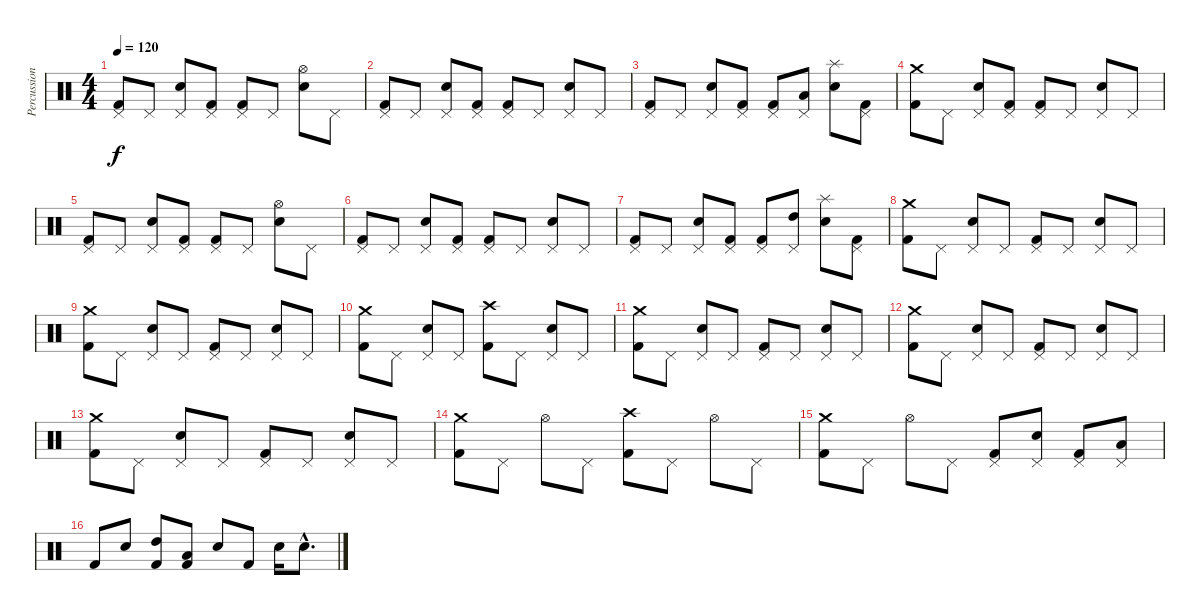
\track ("Percussions" "Percussion") {instrument percussion}
\staff {score}
\articulation defaults
\ts (4 4)
\tempo 120
\clef neutral
\ks c
("Pedal Hi-Hat (hit)" "Kick (hit) 2").8{dy f} "Pedal Hi-Hat (hit)".8 ("Pedal Hi-Hat (hit)" "Snare (hit) 2").8 ("Pedal Hi-Hat (hit)" "Kick (hit) 2").8 ("Pedal Hi-Hat (hit)" "Kick (hit) 2").8 "Pedal Hi-Hat (hit)".8 ("Hi-Hat (open)" "Snare (hit) 2").8 "Pedal Hi-Hat (hit)".8 |
("Pedal Hi-Hat (hit)" "Kick (hit) 2").8 "Pedal Hi-Hat (hit)".8 ("Pedal Hi-Hat (hit)" "Snare (hit) 2").8 ("Pedal Hi-Hat (hit)" "Kick (hit) 2").8 ("Pedal Hi-Hat (hit)" "Kick (hit) 2").8 "Pedal Hi-Hat (hit)".8 ("Pedal Hi-Hat (hit)" "Snare (hit) 2").8 "Pedal Hi-Hat (hit)".8 |
("Pedal Hi-Hat (hit)" "Kick (hit) 2").8 "Pedal Hi-Hat (hit)".8 ("Pedal Hi-Hat (hit)" "Snare (hit) 2").8 ("Pedal Hi-Hat (hit)" "Kick (hit) 2").8 ("Pedal Hi-Hat (hit)" "Kick (hit) 2").8 ("Pedal Hi-Hat (hit)" "Low Tom (hit)").8 ("Splash (hit)" "Snare (hit) 2").8 ("Pedal Hi-Hat (hit)" "Kick (hit) 2").8 |
("Crash medium (hit)" "Kick (hit) 2").8 "Pedal Hi-Hat (hit)".8 ("Pedal Hi-Hat (hit)" "Snare (hit) 2").8 ("Pedal Hi-Hat (hit)" "Kick (hit) 2").8 ("Pedal Hi-Hat (hit)" "Kick (hit) 2").8 "Pedal Hi-Hat (hit)".8 ("Pedal Hi-Hat (hit)" "Snare (hit) 2").8 "Pedal Hi-Hat (hit)".8 |
("Pedal Hi-Hat (hit)" "Kick (hit) 2").8 "Pedal Hi-Hat (hit)".8 ("Pedal Hi-Hat (hit)" "Snare (hit) 2").8 ("Pedal Hi-Hat (hit)" "Kick (hit) 2").8 ("Pedal Hi-Hat (hit)" "Kick (hit) 2").8 "Pedal Hi-Hat (hit)".8 ("Hi-Hat (open)" "Snare (hit) 2").8 "Pedal Hi-Hat (hit)".8 |
("Pedal Hi-Hat (hit)" "Kick (hit) 2").8 "Pedal Hi-Hat (hit)".8 ("Pedal Hi-Hat (hit)" "Snare (hit) 2").8 ("Pedal Hi-Hat (hit)" "Kick (hit) 2").8 ("Pedal Hi-Hat (hit)" "Kick (hit) 2").8 "Pedal Hi-Hat (hit)".8 ("Pedal Hi-Hat (hit)" "Snare (hit) 2").8 "Pedal Hi-Hat (hit)".8 |
("Pedal Hi-Hat (hit)" "Kick (hit) 2").8 "Pedal Hi-Hat (hit)".8 ("Pedal Hi-Hat (hit)" "Snare (hit) 2").8 ("Pedal Hi-Hat (hit)" "Kick (hit) 2").8 ("Pedal Hi-Hat (hit)" "Kick (hit) 2").8 ("Pedal Hi-Hat (hit)" "High Tom (hit)").8 ("Splash (hit)" "Snare (hit) 2").8 ("Pedal Hi-Hat (hit)" "Kick (hit) 2").8 |
("Crash medium (hit)" "Kick (hit) 2").8 "Pedal Hi-Hat (hit)".8 ("Pedal Hi-Hat (hit)" "Snare (hit) 2").8 "Pedal Hi-Hat (hit)".8 ("Pedal Hi-Hat (hit)" "Kick (hit) 2").8 "Pedal Hi-Hat (hit)".8 ("Pedal Hi-Hat (hit)" "Snare (hit) 2").8 "Pedal Hi-Hat (hit)".8 |
("Crash medium (hit)" "Kick (hit) 2").8 "Pedal Hi-Hat (hit)".8 ("Pedal Hi-Hat (hit)" "Snare (hit) 2").8 "Pedal Hi-Hat (hit)".8 ("Pedal Hi-Hat (hit)" "Kick (hit) 2").8 "Pedal Hi-Hat (hit)".8 ("Pedal Hi-Hat (hit)" "Snare (hit) 2").8 "Pedal Hi-Hat (hit)".8 |
("Crash medium (hit)" "Kick (hit) 2").8 "Pedal Hi-Hat (hit)".8 ("Pedal Hi-Hat (hit)" "Snare (hit) 2").8 "Pedal Hi-Hat (hit)".8 ("Crash high (hit)" "Kick (hit) 2").8 "Pedal Hi-Hat (hit)".8 ("Pedal Hi-Hat (hit)" "Snare (hit) 2").8 "Pedal Hi-Hat (hit)".8 |
("Crash medium (hit)" "Kick (hit) 2").8 "Pedal Hi-Hat (hit)".8 ("Pedal Hi-Hat (hit)" "Snare (hit) 2").8 "Pedal Hi-Hat (hit)".8 ("Pedal Hi-Hat (hit)" "Kick (hit) 2").8 "Pedal Hi-Hat (hit)".8 ("Pedal Hi-Hat (hit)" "Snare (hit) 2").8 "Pedal Hi-Hat (hit)".8 |
("Crash medium (hit)" "Kick (hit) 2").8 "Pedal Hi-Hat (hit)".8 ("Pedal Hi-Hat (hit)" "Snare (hit) 2").8 "Pedal Hi-Hat (hit)".8 ("Pedal Hi-Hat (hit)" "Kick (hit) 2").8 "Pedal Hi-Hat (hit)".8 ("Pedal Hi-Hat (hit)" "Snare (hit) 2").8 "Pedal Hi-Hat (hit)".8 |
("Crash medium (hit)" "Kick (hit) 2").8 "Pedal Hi-Hat (hit)".8 ("Pedal Hi-Hat (hit)" "Snare (hit) 2").8 "Pedal Hi-Hat (hit)".8 ("Pedal Hi-Hat (hit)" "Kick (hit) 2").8 "Pedal Hi-Hat (hit)".8 ("Pedal Hi-Hat (hit)" "Snare (hit) 2").8 "Pedal Hi-Hat (hit)".8 |
("Crash medium (hit)" "Kick (hit) 2").8 "Pedal Hi-Hat (hit)".8 "Hi-Hat (open)".8 "Pedal Hi-Hat (hit)".8 ("Crash high (hit)" "Kick (hit) 2").8 "Pedal Hi-Hat (hit)".8 "Hi-Hat (open)".8 "Pedal Hi-Hat (hit)".8 |
("Crash medium (hit)" "Kick (hit) 2").8 "Pedal Hi-Hat (hit)".8 "Hi-Hat (open)".8 "Pedal Hi-Hat (hit)".8 ("Pedal Hi-Hat (hit)" "Kick (hit) 2").8 ("Pedal Hi-Hat (hit)" "Snare (hit) 2").8 ("Pedal Hi-Hat (hit)" "Kick (hit) 2").8 ("Pedal Hi-Hat (hit)" "Low Tom (hit)").8 |
"Kick (hit) 2".8 "Snare (hit) 2".8 ("High Tom (hit)" "Kick (hit) 2").8 ("Low Tom (hit)" "Kick (hit) 2").8 "Snare (hit) 2".8 "Kick (hit) 2".8 "Snare (hit) 2".16 "Snare (hit) 2"{hac}.8{d}
